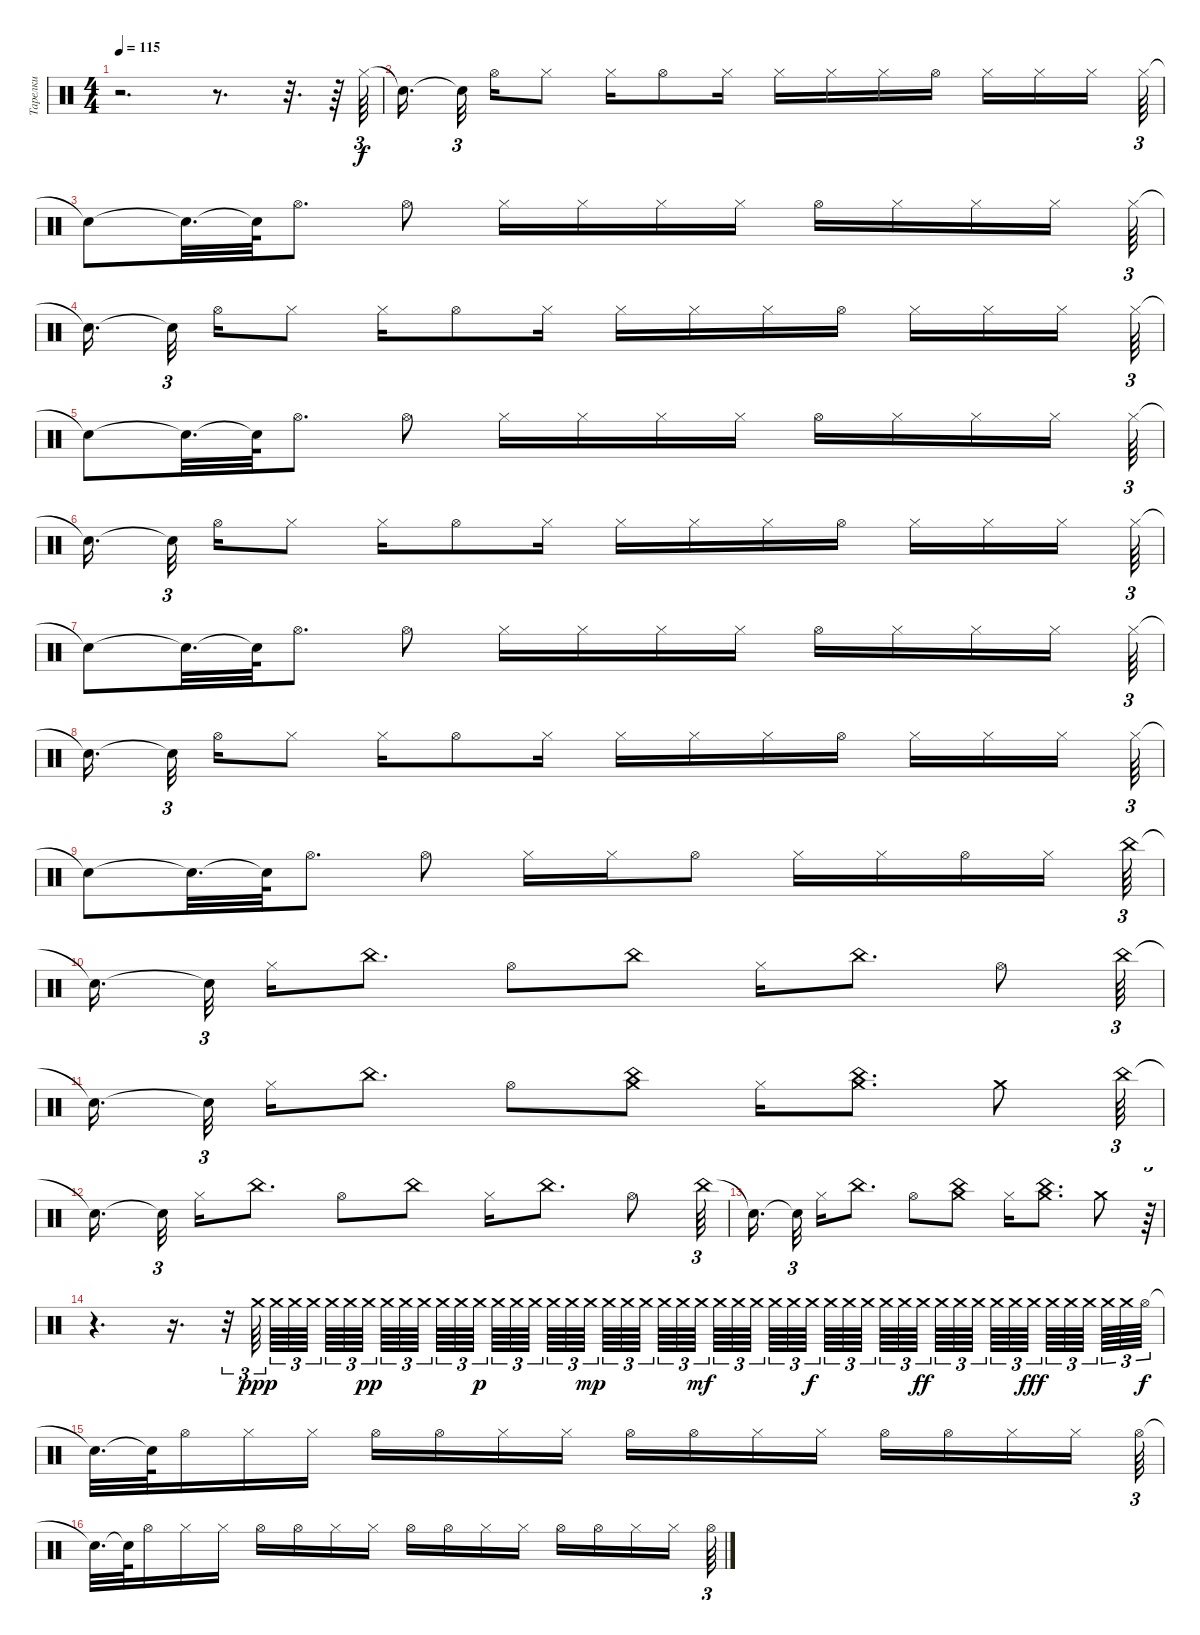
\track ("Тарелки" "Тарелки") {instrument percussion}
\staff {score}
\articulation defaults
\ts (4 4)
\tempo 115
\clef neutral
\ks c
r.2{d dy f} r.8{d} r.32{d} r.64 "Hi-Hat (closed)".64{tu (3 2)} |
"Snare (hit)"{t}.16{d beam splitsecondary} "Snare (hit)"{t}.32{tu (3 2) beam splitsecondary} "Hi-Hat (open)".16 "Hi-Hat (closed)".8 "Hi-Hat (closed)".16 "Hi-Hat (open)".8 "Hi-Hat (closed)".16 "Hi-Hat (closed)".16 "Hi-Hat (closed)".16 "Hi-Hat (closed)".16 "Hi-Hat (open)".16 "Hi-Hat (closed)".16 "Hi-Hat (closed)".16 "Hi-Hat (closed)".16{beam splitsecondary} "Hi-Hat (closed)".64{tu (3 2)} |
"Snare (hit)"{t}.8 "Snare (hit)"{t}.32{d} "Snare (hit)"{t}.64 "Hi-Hat (open)".8{d} "Hi-Hat (open)".8 "Hi-Hat (closed)".16 "Hi-Hat (closed)".16 "Hi-Hat (closed)".16 "Hi-Hat (closed)".16 "Hi-Hat (open)".16 "Hi-Hat (closed)".16 "Hi-Hat (closed)".16 "Hi-Hat (closed)".16 "Hi-Hat (closed)".64{tu (3 2)} |
"Snare (hit)"{t}.16{d beam splitsecondary} "Snare (hit)"{t}.32{tu (3 2) beam splitsecondary} "Hi-Hat (open)".16 "Hi-Hat (closed)".8 "Hi-Hat (closed)".16 "Hi-Hat (open)".8 "Hi-Hat (closed)".16 "Hi-Hat (closed)".16 "Hi-Hat (closed)".16 "Hi-Hat (closed)".16 "Hi-Hat (open)".16 "Hi-Hat (closed)".16 "Hi-Hat (closed)".16 "Hi-Hat (closed)".16{beam splitsecondary} "Hi-Hat (closed)".64{tu (3 2)} |
"Snare (hit)"{t}.8 "Snare (hit)"{t}.32{d} "Snare (hit)"{t}.64 "Hi-Hat (open)".8{d} "Hi-Hat (open)".8 "Hi-Hat (closed)".16 "Hi-Hat (closed)".16 "Hi-Hat (closed)".16 "Hi-Hat (closed)".16 "Hi-Hat (open)".16 "Hi-Hat (closed)".16 "Hi-Hat (closed)".16 "Hi-Hat (closed)".16 "Hi-Hat (closed)".64{tu (3 2)} |
"Snare (hit)"{t}.16{d beam splitsecondary} "Snare (hit)"{t}.32{tu (3 2) beam splitsecondary} "Hi-Hat (open)".16 "Hi-Hat (closed)".8 "Hi-Hat (closed)".16 "Hi-Hat (open)".8 "Hi-Hat (closed)".16 "Hi-Hat (closed)".16 "Hi-Hat (closed)".16 "Hi-Hat (closed)".16 "Hi-Hat (open)".16 "Hi-Hat (closed)".16 "Hi-Hat (closed)".16 "Hi-Hat (closed)".16{beam splitsecondary} "Hi-Hat (closed)".64{tu (3 2)} |
"Snare (hit)"{t}.8 "Snare (hit)"{t}.32{d} "Snare (hit)"{t}.64 "Hi-Hat (open)".8{d} "Hi-Hat (open)".8 "Hi-Hat (closed)".16 "Hi-Hat (closed)".16 "Hi-Hat (closed)".16 "Hi-Hat (closed)".16 "Hi-Hat (open)".16 "Hi-Hat (closed)".16 "Hi-Hat (closed)".16 "Hi-Hat (closed)".16 "Hi-Hat (closed)".64{tu (3 2)} |
"Snare (hit)"{t}.16{d beam splitsecondary} "Snare (hit)"{t}.32{tu (3 2) beam splitsecondary} "Hi-Hat (open)".16 "Hi-Hat (closed)".8 "Hi-Hat (closed)".16 "Hi-Hat (open)".8 "Hi-Hat (closed)".16 "Hi-Hat (closed)".16 "Hi-Hat (closed)".16 "Hi-Hat (closed)".16 "Hi-Hat (open)".16 "Hi-Hat (closed)".16 "Hi-Hat (closed)".16 "Hi-Hat (closed)".16{beam splitsecondary} "Hi-Hat (closed)".64{tu (3 2)} |
"Snare (hit)"{t}.8 "Snare (hit)"{t}.32{d} "Snare (hit)"{t}.64 "Hi-Hat (open)".8{d} "Hi-Hat (open)".8 "Hi-Hat (closed)".16 "Hi-Hat (closed)".16 "Hi-Hat (open)".8 "Hi-Hat (closed)".16 "Hi-Hat (closed)".16 "Hi-Hat (open)".16 "Hi-Hat (closed)".16 "China (hit)".64{tu (3 2)} |
"Snare (hit)"{t}.16{d beam splitsecondary} "Snare (hit)"{t}.32{tu (3 2) beam splitsecondary} "Hi-Hat (closed)".16 "China (hit)".8{d} "Hi-Hat (open)".8 "China (hit)".8 "Hi-Hat (closed)".16 "China (hit)".8{d} "Hi-Hat (open)".8 "China (hit)".64{tu (3 2)} |
"Snare (hit)"{t}.16{d beam splitsecondary} "Snare (hit)"{t}.32{tu (3 2) beam splitsecondary} "Hi-Hat (closed)".16 "China (hit)".8{d} "Hi-Hat (open)".8 ("China (hit)" "Crash medium (hit)").8 "Hi-Hat (closed)".16 ("China (hit)" "Crash medium (hit)").8{d} "Crash medium (hit)".8 "China (hit)".64{tu (3 2)} |
"Snare (hit)"{t}.16{d beam splitsecondary} "Snare (hit)"{t}.32{tu (3 2) beam splitsecondary} "Hi-Hat (closed)".16 "China (hit)".8{d} "Hi-Hat (open)".8 "China (hit)".8 "Hi-Hat (closed)".16 "China (hit)".8{d} "Hi-Hat (open)".8 "China (hit)".64{tu (3 2)} |
"Snare (hit)"{t}.16{d beam splitsecondary} "Snare (hit)"{t}.32{tu (3 2) beam splitsecondary} "Hi-Hat (closed)".16 "China (hit)".8{d} "Hi-Hat (open)".8 ("China (hit)" "Crash medium (hit)").8 "Hi-Hat (closed)".16 ("China (hit)" "Crash medium (hit)").8{d} "Crash medium (hit)".8 r.64{tu (3 2)} |
r.4{d} r.16{d} r.32{tu (3 2)} "Crash medium (hit)".64{tu (3 2) dy ppp} "Crash medium (hit)".64{tu (3 2)} "Crash medium (hit)".64{tu (3 2)} "Crash medium (hit)".64{tu (3 2) beam splitsecondary} "Crash medium (hit)".64{tu (3 2)} "Crash medium (hit)".64{tu (3 2)} "Crash medium (hit)".64{tu (3 2) dy pp beam splitsecondary} "Crash medium (hit)".64{tu (3 2)} "Crash medium (hit)".64{tu (3 2)} "Crash medium (hit)".64{tu (3 2) beam splitsecondary} "Crash medium (hit)".64{tu (3 2)} "Crash medium (hit)".64{tu (3 2)} "Crash medium (hit)".64{tu (3 2) dy p beam splitsecondary} "Crash medium (hit)".64{tu (3 2)} "Crash medium (hit)".64{tu (3 2)} "Crash medium (hit)".64{tu (3 2) beam splitsecondary} "Crash medium (hit)".64{tu (3 2)} "Crash medium (hit)".64{tu (3 2)} "Crash medium (hit)".64{tu (3 2) dy mp beam splitsecondary} "Crash medium (hit)".64{tu (3 2)} "Crash medium (hit)".64{tu (3 2)} "Crash medium (hit)".64{tu (3 2) beam splitsecondary} "Crash medium (hit)".64{tu (3 2)} "Crash medium (hit)".64{tu (3 2)} "Crash medium (hit)".64{tu (3 2) dy mf} "Crash medium (hit)".64{tu (3 2)} "Crash medium (hit)".64{tu (3 2)} "Crash medium (hit)".64{tu (3 2) beam splitsecondary} "Crash medium (hit)".64{tu (3 2)} "Crash medium (hit)".64{tu (3 2)} "Crash medium (hit)".64{tu (3 2) dy f beam splitsecondary} "Crash medium (hit)".64{tu (3 2)} "Crash medium (hit)".64{tu (3 2)} "Crash medium (hit)".64{tu (3 2) beam splitsecondary} "Crash medium (hit)".64{tu (3 2)} "Crash medium (hit)".64{tu (3 2)} "Crash medium (hit)".64{tu (3 2) dy ff beam splitsecondary} "Crash medium (hit)".64{tu (3 2)} "Crash medium (hit)".64{tu (3 2)} "Crash medium (hit)".64{tu (3 2) beam splitsecondary} "Crash medium (hit)".64{tu (3 2)} "Crash medium (hit)".64{tu (3 2)} "Crash medium (hit)".64{tu (3 2) dy fff beam splitsecondary} "Crash medium (hit)".64{tu (3 2)} "Crash medium (hit)".64{tu (3 2)} "Crash medium (hit)".64{tu (3 2) beam splitsecondary} "Crash medium (hit)".64{tu (3 2)} "Crash medium (hit)".64{tu (3 2)} "Hi-Hat (open)".64{tu (3 2) dy f} |
"Snare (hit)"{t}.32{d} "Snare (hit)"{t}.64 "Hi-Hat (open)".16 "Hi-Hat (closed)".16 "Hi-Hat (closed)".16 "Hi-Hat (open)".16 "Hi-Hat (open)".16 "Hi-Hat (closed)".16 "Hi-Hat (closed)".16 "Hi-Hat (open)".16 "Hi-Hat (open)".16 "Hi-Hat (closed)".16 "Hi-Hat (closed)".16 "Hi-Hat (open)".16 "Hi-Hat (open)".16 "Hi-Hat (closed)".16 "Hi-Hat (closed)".16 "Hi-Hat (open)".64{tu (3 2)} |
"Snare (hit)"{t}.32{d} "Snare (hit)"{t}.64 "Hi-Hat (open)".16 "Hi-Hat (closed)".16 "Hi-Hat (closed)".16 "Hi-Hat (open)".16 "Hi-Hat (open)".16 "Hi-Hat (closed)".16 "Hi-Hat (closed)".16 "Hi-Hat (open)".16 "Hi-Hat (open)".16 "Hi-Hat (closed)".16 "Hi-Hat (closed)".16 "Hi-Hat (open)".16 "Hi-Hat (open)".16 "Hi-Hat (closed)".16 "Hi-Hat (closed)".16 "Hi-Hat (open)".64{tu (3 2)}
